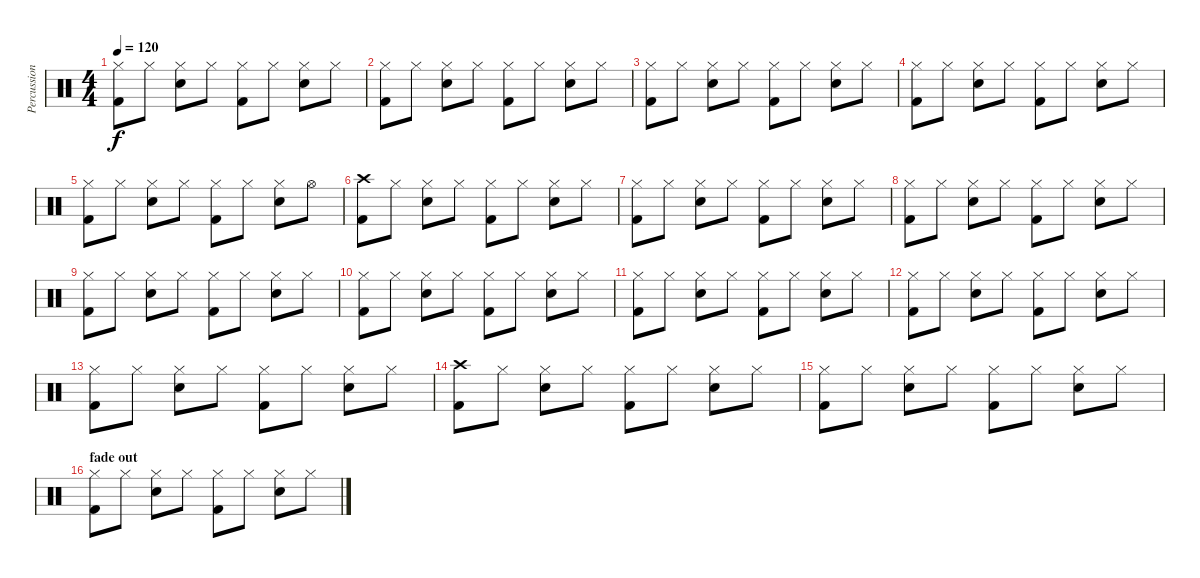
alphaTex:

\track ("Percussion" "Percussion") {instrument percussion}
\staff {score}
\articulation defaults
\ts (4 4)
\tempo 120
\clef neutral
\ks c
("Hi-Hat (closed)" "Kick (hit) 2").8{dy f} "Hi-Hat (closed)".8 ("Hi-Hat (closed)" "Electric Snare (hit)").8 "Hi-Hat (closed)".8 ("Hi-Hat (closed)" "Kick (hit) 2").8 "Hi-Hat (closed)".8 ("Hi-Hat (closed)" "Electric Snare (hit)").8 "Hi-Hat (closed)".8 |
("Hi-Hat (closed)" "Kick (hit) 2").8 "Hi-Hat (closed)".8 ("Hi-Hat (closed)" "Electric Snare (hit)").8 "Hi-Hat (closed)".8 ("Hi-Hat (closed)" "Kick (hit) 2").8 "Hi-Hat (closed)".8 ("Hi-Hat (closed)" "Electric Snare (hit)").8 "Hi-Hat (closed)".8 |
("Hi-Hat (closed)" "Kick (hit) 2").8 "Hi-Hat (closed)".8 ("Hi-Hat (closed)" "Electric Snare (hit)").8 "Hi-Hat (closed)".8 ("Hi-Hat (closed)" "Kick (hit) 2").8 "Hi-Hat (closed)".8 ("Hi-Hat (closed)" "Electric Snare (hit)").8 "Hi-Hat (closed)".8 |
("Hi-Hat (closed)" "Kick (hit) 2").8 "Hi-Hat (closed)".8 ("Hi-Hat (closed)" "Electric Snare (hit)").8 "Hi-Hat (closed)".8 ("Hi-Hat (closed)" "Kick (hit) 2").8 "Hi-Hat (closed)".8 ("Hi-Hat (closed)" "Electric Snare (hit)").8 "Hi-Hat (closed)".8 |
("Hi-Hat (closed)" "Kick (hit) 2").8 "Hi-Hat (closed)".8 ("Hi-Hat (closed)" "Electric Snare (hit)").8 "Hi-Hat (closed)".8 ("Hi-Hat (closed)" "Kick (hit) 2").8 "Hi-Hat (closed)".8 ("Hi-Hat (closed)" "Electric Snare (hit)").8 "Hi-Hat (open)".8 |
("Crash high (hit)" "Kick (hit) 2").8 "Hi-Hat (closed)".8 ("Hi-Hat (closed)" "Electric Snare (hit)").8 "Hi-Hat (closed)".8 ("Hi-Hat (closed)" "Kick (hit) 2").8 "Hi-Hat (closed)".8 ("Hi-Hat (closed)" "Electric Snare (hit)").8 "Hi-Hat (closed)".8 |
("Hi-Hat (closed)" "Kick (hit) 2").8 "Hi-Hat (closed)".8 ("Hi-Hat (closed)" "Electric Snare (hit)").8 "Hi-Hat (closed)".8 ("Hi-Hat (closed)" "Kick (hit) 2").8 "Hi-Hat (closed)".8 ("Hi-Hat (closed)" "Electric Snare (hit)").8 "Hi-Hat (closed)".8 |
("Hi-Hat (closed)" "Kick (hit) 2").8 "Hi-Hat (closed)".8 ("Hi-Hat (closed)" "Electric Snare (hit)").8 "Hi-Hat (closed)".8 ("Hi-Hat (closed)" "Kick (hit) 2").8 "Hi-Hat (closed)".8 ("Hi-Hat (closed)" "Electric Snare (hit)").8 "Hi-Hat (closed)".8 |
("Hi-Hat (closed)" "Kick (hit) 2").8 "Hi-Hat (closed)".8 ("Hi-Hat (closed)" "Electric Snare (hit)").8 "Hi-Hat (closed)".8 ("Hi-Hat (closed)" "Kick (hit) 2").8 "Hi-Hat (closed)".8 ("Hi-Hat (closed)" "Electric Snare (hit)").8 "Hi-Hat (closed)".8 |
("Hi-Hat (closed)" "Kick (hit) 2").8 "Hi-Hat (closed)".8 ("Hi-Hat (closed)" "Electric Snare (hit)").8 "Hi-Hat (closed)".8 ("Hi-Hat (closed)" "Kick (hit) 2").8 "Hi-Hat (closed)".8 ("Hi-Hat (closed)" "Electric Snare (hit)").8 "Hi-Hat (closed)".8 |
("Hi-Hat (closed)" "Kick (hit) 2").8 "Hi-Hat (closed)".8 ("Hi-Hat (closed)" "Electric Snare (hit)").8 "Hi-Hat (closed)".8 ("Hi-Hat (closed)" "Kick (hit) 2").8 "Hi-Hat (closed)".8 ("Hi-Hat (closed)" "Electric Snare (hit)").8 "Hi-Hat (closed)".8 |
("Hi-Hat (closed)" "Kick (hit) 2").8 "Hi-Hat (closed)".8 ("Hi-Hat (closed)" "Electric Snare (hit)").8 "Hi-Hat (closed)".8 ("Hi-Hat (closed)" "Kick (hit) 2").8 "Hi-Hat (closed)".8 ("Hi-Hat (closed)" "Electric Snare (hit)").8 "Hi-Hat (closed)".8 |
("Hi-Hat (closed)" "Kick (hit) 2").8 "Hi-Hat (closed)".8 ("Hi-Hat (closed)" "Electric Snare (hit)").8 "Hi-Hat (closed)".8 ("Hi-Hat (closed)" "Kick (hit) 2").8 "Hi-Hat (closed)".8 ("Hi-Hat (closed)" "Electric Snare (hit)").8 "Hi-Hat (closed)".8 |
("Crash high (hit)" "Kick (hit) 2").8 "Hi-Hat (closed)".8 ("Hi-Hat (closed)" "Electric Snare (hit)").8 "Hi-Hat (closed)".8 ("Hi-Hat (closed)" "Kick (hit) 2").8 "Hi-Hat (closed)".8 ("Hi-Hat (closed)" "Electric Snare (hit)").8 "Hi-Hat (closed)".8 |
("Hi-Hat (closed)" "Kick (hit) 2").8 "Hi-Hat (closed)".8 ("Hi-Hat (closed)" "Electric Snare (hit)").8 "Hi-Hat (closed)".8 ("Hi-Hat (closed)" "Kick (hit) 2").8 "Hi-Hat (closed)".8 ("Hi-Hat (closed)" "Electric Snare (hit)").8 "Hi-Hat (closed)".8 |
\section ("" "fade out")
("Hi-Hat (closed)" "Kick (hit) 2").8{volume 9} "Hi-Hat (closed)".8 ("Hi-Hat (closed)" "Electric Snare (hit)").8 "Hi-Hat (closed)".8 ("Hi-Hat (closed)" "Kick (hit) 2").8 "Hi-Hat (closed)".8 ("Hi-Hat (closed)" "Electric Snare (hit)").8 "Hi-Hat (closed)".8
